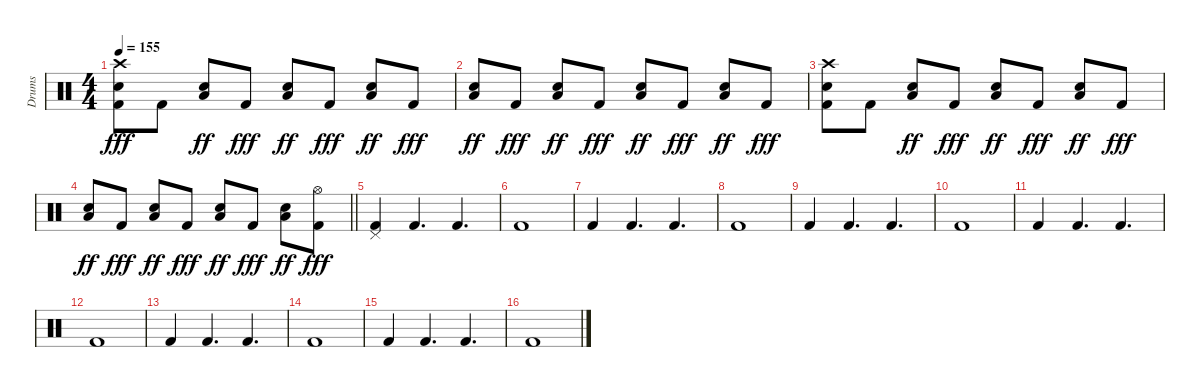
\track ("Drums" "Drums") {instrument percussion}
\staff {score}
\articulation defaults
\ts (4 4)
\tempo 155
\clef neutral
\ks c
("Crash high (hit)" "Snare (hit) 2" "Kick (hit) 2").8{dy fff} "Kick (hit) 2".8 ("Snare (hit) 2" "Low Floor Tom (hit)").8{dy ff} "Kick (hit) 2".8{dy fff} ("Snare (hit) 2" "Low Floor Tom (hit)").8{dy ff} "Kick (hit) 2".8{dy fff} ("Snare (hit) 2" "Low Floor Tom (hit)").8{dy ff} "Kick (hit) 2".8{dy fff} |
("Snare (hit) 2" "Low Floor Tom (hit)").8{dy ff} "Kick (hit) 2".8{dy fff} ("Snare (hit) 2" "Low Floor Tom (hit)").8{dy ff} "Kick (hit) 2".8{dy fff} ("Snare (hit) 2" "Low Floor Tom (hit)").8{dy ff} "Kick (hit) 2".8{dy fff} ("Snare (hit) 2" "Low Floor Tom (hit)").8{dy ff} "Kick (hit) 2".8{dy fff} |
("Crash high (hit)" "Snare (hit) 2" "Kick (hit) 2").8 "Kick (hit) 2".8 ("Snare (hit) 2" "Low Floor Tom (hit)").8{dy ff} "Kick (hit) 2".8{dy fff} ("Snare (hit) 2" "Low Floor Tom (hit)").8{dy ff} "Kick (hit) 2".8{dy fff} ("Snare (hit) 2" "Low Floor Tom (hit)").8{dy ff} "Kick (hit) 2".8{dy fff} |
\barLineRight lightlight
("Snare (hit) 2" "Low Floor Tom (hit)").8{dy ff} "Kick (hit) 2".8{dy fff} ("Snare (hit) 2" "Low Floor Tom (hit)").8{dy ff} "Kick (hit) 2".8{dy fff} ("Snare (hit) 2" "Low Floor Tom (hit)").8{dy ff} "Kick (hit) 2".8{dy fff} ("Snare (hit) 2" "Low Floor Tom (hit)").8{dy ff} ("Hi-Hat (open)" "Kick (hit) 2").8{dy fff} |
\section ("" "")
("Pedal Hi-Hat (hit)" "Kick (hit) 2").4 "Kick (hit) 2".4{d} "Kick (hit) 2".4{d} |
"Kick (hit) 2".1 |
"Kick (hit) 2".4 "Kick (hit) 2".4{d} "Kick (hit) 2".4{d} |
"Kick (hit) 2".1 |
"Kick (hit) 2".4 "Kick (hit) 2".4{d} "Kick (hit) 2".4{d} |
"Kick (hit) 2".1 |
"Kick (hit) 2".4 "Kick (hit) 2".4{d} "Kick (hit) 2".4{d} |
"Kick (hit) 2".1 |
"Kick (hit) 2".4 "Kick (hit) 2".4{d} "Kick (hit) 2".4{d} |
"Kick (hit) 2".1 |
"Kick (hit) 2".4 "Kick (hit) 2".4{d} "Kick (hit) 2".4{d} |
"Kick (hit) 2".1
